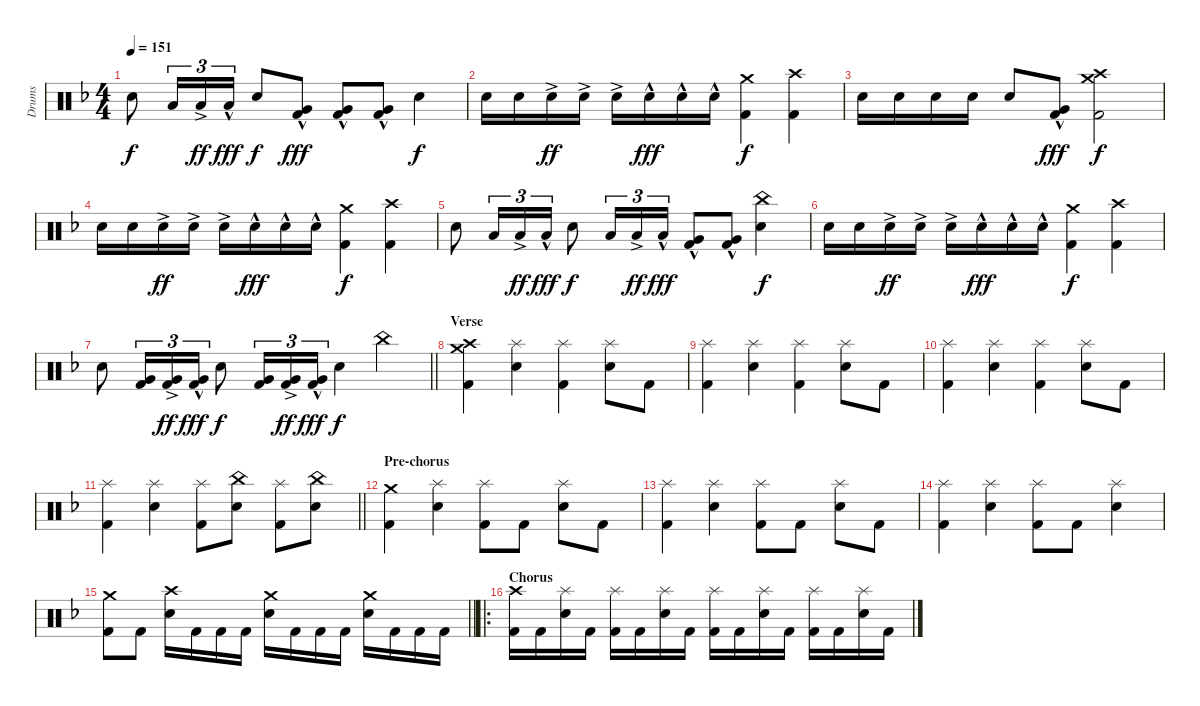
\track ("Drums" "Drums") {instrument percussion}
\staff {score}
\articulation defaults
\ts (4 4)
\tempo 151
\clef neutral
\ks dminor "Snare (hit) 2".8{dy f} "Low Tom (hit)".16{tu (3 2)} "Low Tom (hit)"{ac}.16{tu (3 2) dy ff} "Low Tom (hit)"{hac}.16{tu (3 2) dy fff} "Snare (hit) 2".8{dy f}
("Very Low Tom (hit)"{hac} "Kick (hit) 2").8{dy fff} ("Very Low Tom (hit)"{hac} "Kick (hit) 2").8 ("Very Low Tom (hit)"{hac} "Kick (hit) 2").8 "Snare (hit) 2".4{dy f} |
"Snare (hit) 2".16 "Snare (hit) 2".16 "Snare (hit) 2"{ac}.16{dy ff} "Snare (hit) 2"{ac}.16 "Snare (hit) 2"{ac}.16 "Snare (hit) 2"{hac}.16{dy fff} "Snare (hit) 2"{hac}.16 "Snare (hit) 2"{hac}.16 ("Crash medium (hit)" "Kick (hit) 2").4{dy f} ("Crash high (hit)" "Kick (hit) 2").4 |
"Snare (hit) 2".16 "Snare (hit) 2".16 "Snare (hit) 2".16 "Snare (hit) 2".16 "Snare (hit) 2".8 ("Very Low Tom (hit)"{hac} "Kick (hit) 2").8{dy fff} ("Crash high (hit)" "Crash medium (hit)" "Kick (hit) 2").2{dy f} |
"Snare (hit) 2".16 "Snare (hit) 2".16 "Snare (hit) 2"{ac}.16{dy ff} "Snare (hit) 2"{ac}.16 "Snare (hit) 2"{ac}.16 "Snare (hit) 2"{hac}.16{dy fff} "Snare (hit) 2"{hac}.16 "Snare (hit) 2"{hac}.16 ("Crash medium (hit)" "Kick (hit) 2").4{dy f} ("Crash high (hit)" "Kick (hit) 2").4 |
"Snare (hit) 2".8 "Low Tom (hit)".16{tu (3 2)} "Low Tom (hit)"{ac}.16{tu (3 2) dy ff} "Low Tom (hit)"{hac}.16{tu (3 2) dy fff} "Snare (hit) 2".8{dy f} "Low Tom (hit)".16{tu (3 2)} "Low Tom (hit)"{ac}.16{tu (3 2) dy ff} "Low Tom (hit)"{hac}.16{tu (3 2) dy fff} ("Very Low Tom (hit)"{hac} "Kick (hit) 2").8 ("Very Low Tom (hit)"{hac} "Kick (hit) 2").8 ("China (hit)" "Snare (hit) 2").4{dy f} |
"Snare (hit) 2".16 "Snare (hit) 2".16 "Snare (hit) 2"{ac}.16{dy ff} "Snare (hit) 2"{ac}.16 "Snare (hit) 2"{ac}.16 "Snare (hit) 2"{hac}.16{dy fff} "Snare (hit) 2"{hac}.16 "Snare (hit) 2"{hac}.16 ("Crash medium (hit)" "Kick (hit) 2").4{dy f} ("Crash high (hit)" "Kick (hit) 2").4 |
\barLineRight lightlight "Snare (hit) 2".8
("Very Low Tom (hit)" "Kick (hit) 2").16{tu (3 2)} ("Very Low Tom (hit)"{ac} "Kick (hit) 2"{ac}).16{tu (3 2) dy ff} ("Very Low Tom (hit)"{hac} "Kick (hit) 2"{hac}).16{tu (3 2) dy fff} "Snare (hit) 2".8{dy f} ("Very Low Tom (hit)" "Kick (hit) 2").16{tu (3 2)} ("Very Low Tom (hit)"{ac} "Kick (hit) 2"{ac}).16{tu (3 2) dy ff} ("Very Low Tom (hit)"{hac} "Kick (hit) 2"{hac}).16{tu (3 2) dy fff} "Snare (hit) 2".4{dy f} "China (hit)".4 |
\section ("" "Verse")
("Crash high (hit)" "Crash medium (hit)" "Kick (hit) 2").4 ("Splash (hit)" "Snare (hit) 2").4 ("Splash (hit)" "Kick (hit) 2").4 ("Splash (hit)" "Snare (hit) 2").8 "Kick (hit) 2".8 |
("Splash (hit)" "Kick (hit) 2").4 ("Splash (hit)" "Snare (hit) 2").4 ("Splash (hit)" "Kick (hit) 2").4 ("Splash (hit)" "Snare (hit) 2").8 "Kick (hit) 2".8 |
("Splash (hit)" "Kick (hit) 2").4 ("Splash (hit)" "Snare (hit) 2").4 ("Splash (hit)" "Kick (hit) 2").4 ("Splash (hit)" "Snare (hit) 2").8 "Kick (hit) 2".8 |
\barLineRight lightlight
("Splash (hit)" "Kick (hit) 2").4 ("Splash (hit)" "Snare (hit) 2").4 ("Splash (hit)" "Kick (hit) 2").8 ("China (hit)" "Snare (hit) 2").8 ("Splash (hit)" "Kick (hit) 2").8 ("China (hit)" "Snare (hit) 2").8 |
\section ("" "Pre-chorus")
("Crash medium (hit)" "Kick (hit) 2").4 ("Splash (hit)" "Snare (hit) 2").4 ("Splash (hit)" "Kick (hit) 2").8 "Kick (hit) 2".8 ("Splash (hit)" "Snare (hit) 2").8 "Kick (hit) 2".8 |
("Splash (hit)" "Kick (hit) 2").4 ("Splash (hit)" "Snare (hit) 2").4 ("Splash (hit)" "Kick (hit) 2").8 "Kick (hit) 2".8 ("Splash (hit)" "Snare (hit) 2").8 "Kick (hit) 2".8 |
("Splash (hit)" "Kick (hit) 2").4 ("Splash (hit)" "Snare (hit) 2").4 ("Splash (hit)" "Kick (hit) 2").8 "Kick (hit) 2".8 ("Splash (hit)" "Snare (hit) 2").4 |
\barLineRight lightlight
("Crash medium (hit)" "Kick (hit) 2").8 "Kick (hit) 2".8 ("Crash high (hit)" "Snare (hit) 2").16 "Kick (hit) 2".16 "Kick (hit) 2".16 "Kick (hit) 2".16 ("Crash medium (hit)" "Snare (hit) 2").16 "Kick (hit) 2".16 "Kick (hit) 2".16 "Kick (hit) 2".16 ("Crash medium (hit)" "Snare (hit) 2").16 "Kick (hit) 2".16 "Kick (hit) 2".16 "Kick (hit) 2".16 |
\ro
\section ("" "Chorus")
("Crash high (hit)" "Kick (hit) 2").16 "Kick (hit) 2".16 ("Splash (hit)" "Snare (hit) 2").16 "Kick (hit) 2".16 ("Splash (hit)" "Kick (hit) 2").16 "Kick (hit) 2".16 ("Splash (hit)" "Snare (hit) 2").16 "Kick (hit) 2".16 ("Splash (hit)" "Kick (hit) 2").16 "Kick (hit) 2".16 ("Splash (hit)" "Snare (hit) 2").16 "Kick (hit) 2".16 ("Splash (hit)" "Kick (hit) 2").16 "Kick (hit) 2".16 ("Splash (hit)" "Snare (hit) 2").16 "Kick (hit) 2".16
